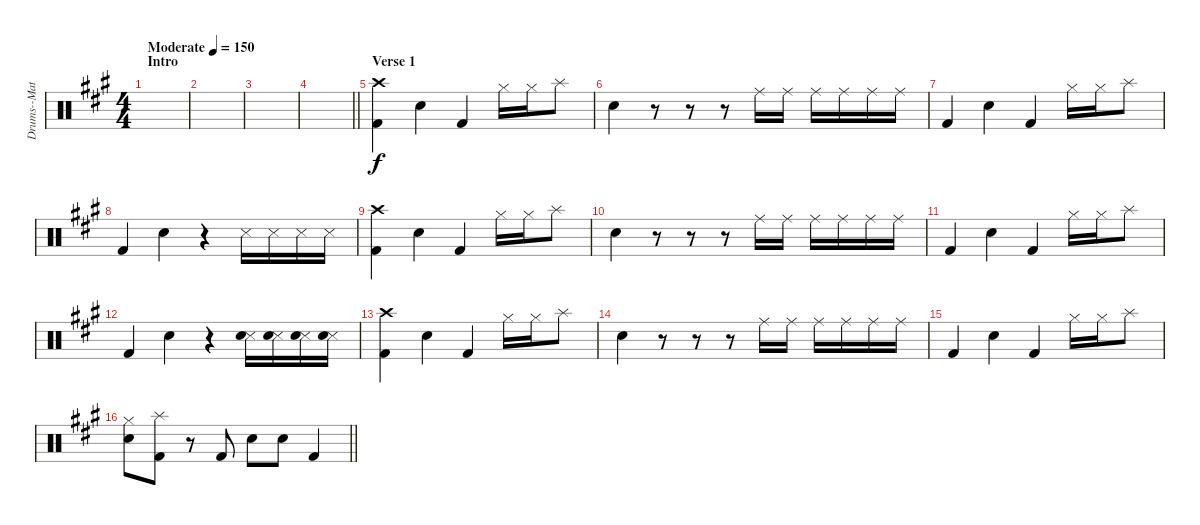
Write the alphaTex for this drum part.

\track ("Drums--Matt Whalen" "Drums--Mat") {instrument percussion}
\staff {score}
\articulation defaults
\ts (4 4)
\section ("" "Intro")
\tempo (150 "Moderate")
\clef neutral
\ks a
|
|
|
\barLineRight lightlight
|
\section ("" "Verse 1")
("Crash high (hit)" "Kick (hit) 2").4 "Snare (hit) 2".4 "Kick (hit) 2".4 "Hi-Hat (closed)".16 "Hi-Hat (closed)".16 "Splash (hit)".8 |
"Snare (hit) 2".4 r.8 r.8 r.8 "Ride (middle)".16 "Ride (middle)".16 "Ride (middle)".16 "Ride (middle)".16 "Ride (middle)".16 "Ride (middle)".16 |
"Kick (hit) 2".4 "Snare (hit) 2".4 "Kick (hit) 2".4 "Hi-Hat (closed)".16 "Hi-Hat (closed)".16 "Splash (hit)".8 |
"Kick (hit) 2".4 "Snare (hit) 2".4 r.4 "Snare (side stick) 3".16 "Snare (side stick) 3".16 "Snare (side stick) 3".16 "Snare (side stick) 3".16 |
("Crash high (hit)" "Kick (hit) 2").4 "Snare (hit) 2".4 "Kick (hit) 2".4 "Hi-Hat (closed)".16 "Hi-Hat (closed)".16 "Splash (hit)".8 |
"Snare (hit) 2".4 r.8 r.8 r.8 "Ride (middle)".16 "Ride (middle)".16 "Ride (middle)".16 "Ride (middle)".16 "Ride (middle)".16 "Ride (middle)".16 |
"Kick (hit) 2".4 "Snare (hit) 2".4 "Kick (hit) 2".4 "Hi-Hat (closed)".16 "Hi-Hat (closed)".16 "Splash (hit)".8 |
"Kick (hit) 2".4 "Snare (hit) 2".4 r.4 ("Snare (side stick) 3" "Snare (hit) 2").16 ("Snare (side stick) 3" "Snare (hit) 2").16 ("Snare (side stick) 3" "Snare (hit) 2").16 ("Snare (side stick) 3" "Snare (hit) 2").16 |
("Crash high (hit)" "Kick (hit) 2").4 "Snare (hit) 2".4 "Kick (hit) 2".4 "Hi-Hat (closed)".16 "Hi-Hat (closed)".16 "Splash (hit)".8 |
"Snare (hit) 2".4 r.8 r.8 r.8 "Ride (middle)".16 "Ride (middle)".16 "Ride (middle)".16 "Ride (middle)".16 "Ride (middle)".16 "Ride (middle)".16 |
"Kick (hit) 2".4 "Snare (hit) 2".4 "Kick (hit) 2".4 "Hi-Hat (closed)".16 "Hi-Hat (closed)".16 "Splash (hit)".8 |
\barLineRight lightlight
("Hi-Hat (closed)" "Snare (hit) 2").8 ("Splash (hit)" "Kick (hit) 2").8 r.8 "Kick (hit) 2".8 "Snare (hit) 2".8 "Snare (hit) 2".8 "Kick (hit) 2".4
